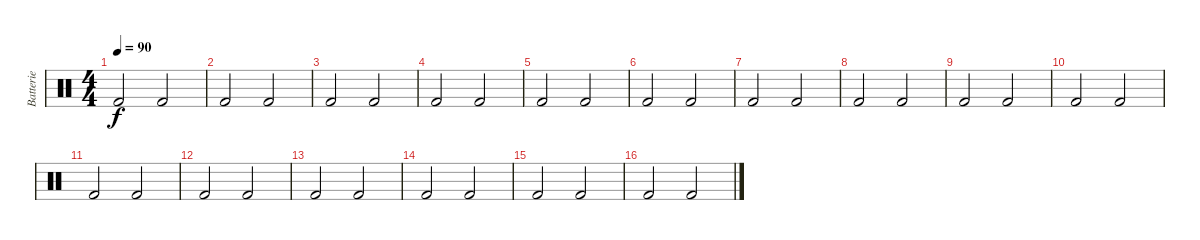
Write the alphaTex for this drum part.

\track ("Batterie" "Batterie") {instrument percussion}
\staff {score}
\articulation defaults
\ts (4 4)
\tempo 90
\clef neutral
\ks c "Kick (hit) 2".2{dy f} "Kick (hit) 2".2
|
"Kick (hit) 2".2 "Kick (hit) 2".2 |
"Kick (hit) 2".2 "Kick (hit) 2".2 |
"Kick (hit) 2".2 "Kick (hit) 2".2 |
"Kick (hit) 2".2 "Kick (hit) 2".2 |
"Kick (hit) 2".2 "Kick (hit) 2".2 |
"Kick (hit) 2".2 "Kick (hit) 2".2 |
"Kick (hit) 2".2 "Kick (hit) 2".2 |
"Kick (hit) 2".2 "Kick (hit) 2".2 |
"Kick (hit) 2".2 "Kick (hit) 2".2 |
"Kick (hit) 2".2 "Kick (hit) 2".2 |
"Kick (hit) 2".2 "Kick (hit) 2".2 |
"Kick (hit) 2".2 "Kick (hit) 2".2 |
"Kick (hit) 2".2 "Kick (hit) 2".2 |
"Kick (hit) 2".2 "Kick (hit) 2".2 |
"Kick (hit) 2".2 "Kick (hit) 2".2
